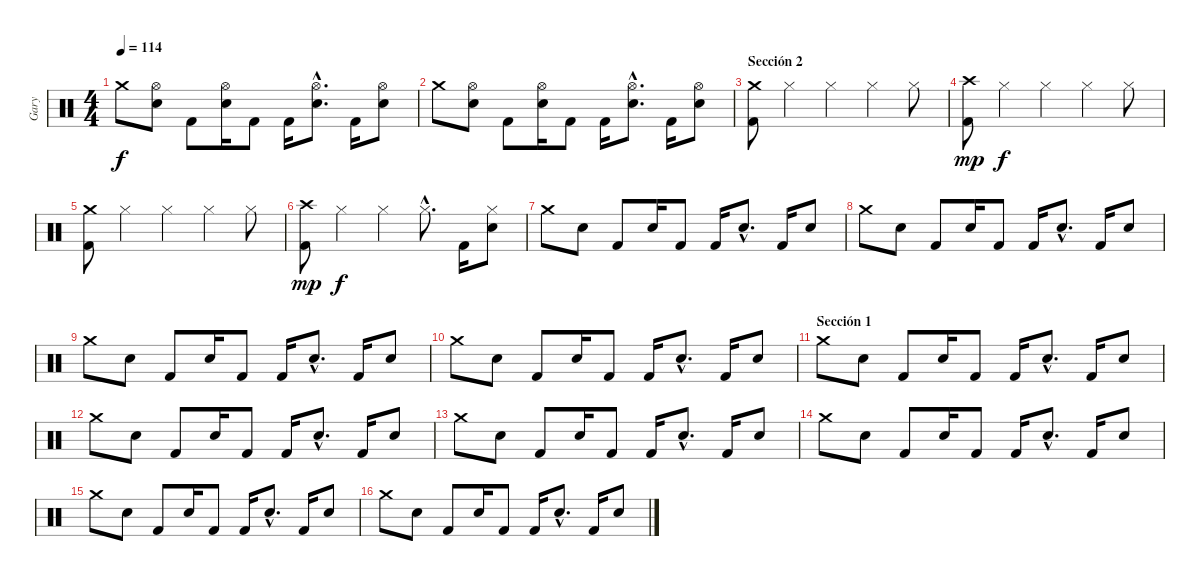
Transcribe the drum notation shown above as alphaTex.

\track ("Gary" "Gary") {instrument percussion}
\staff {score}
\articulation defaults
\ts (4 4)
\tempo 114
\clef neutral
\ks c "Crash medium (hit)".8{dy f}
("Hi-Hat (open)" "Snare (hit) 2").8 "Kick (hit) 2".8 ("Hi-Hat (open)" "Snare (hit) 2").16 "Kick (hit) 2".8 "Kick (hit) 2".16 ("Hi-Hat (open)"{hac} "Snare (hit) 2"{hac}).8{d} "Kick (hit) 2".16 ("Hi-Hat (open)" "Snare (hit) 2").8 |
"Crash medium (hit)".8 ("Hi-Hat (open)" "Snare (hit) 2").8 "Kick (hit) 2".8 ("Hi-Hat (open)" "Snare (hit) 2").16 "Kick (hit) 2".8 "Kick (hit) 2".16 ("Hi-Hat (open)"{hac} "Snare (hit) 2"{hac}).8{d} "Kick (hit) 2".16 ("Hi-Hat (open)" "Snare (hit) 2").8 |
\section ("" "Sección 2")
("Crash medium (hit)" "Kick (hit) 2").8 "Hi-Hat (closed)".4 "Hi-Hat (closed)".4 "Hi-Hat (closed)".4 "Hi-Hat (closed)".8 |
("Crash high (hit)" "Kick (hit) 2").8{dy mp} "Hi-Hat (closed)".4{dy f} "Hi-Hat (closed)".4 "Hi-Hat (closed)".4 "Hi-Hat (closed)".8 |
("Crash medium (hit)" "Kick (hit) 2").8 "Hi-Hat (closed)".4 "Hi-Hat (closed)".4 "Hi-Hat (closed)".4 "Hi-Hat (closed)".8 |
("Crash high (hit)" "Kick (hit) 2").8{dy mp} "Hi-Hat (closed)".4{dy f} "Hi-Hat (closed)".4 "Hi-Hat (closed)"{hac}.8{d} "Kick (hit) 2".16 ("Hi-Hat (closed)" "Snare (hit) 2").8 |
"Crash medium (hit)".8 "Snare (hit) 2".8 "Kick (hit) 2".8 "Snare (hit) 2".16 "Kick (hit) 2".8 "Kick (hit) 2".16 "Snare (hit) 2"{hac}.8{d} "Kick (hit) 2".16 "Snare (hit) 2".8 |
"Crash medium (hit)".8 "Snare (hit) 2".8 "Kick (hit) 2".8 "Snare (hit) 2".16 "Kick (hit) 2".8 "Kick (hit) 2".16 "Snare (hit) 2"{hac}.8{d} "Kick (hit) 2".16 "Snare (hit) 2".8 |
"Crash medium (hit)".8 "Snare (hit) 2".8 "Kick (hit) 2".8 "Snare (hit) 2".16 "Kick (hit) 2".8 "Kick (hit) 2".16 "Snare (hit) 2"{hac}.8{d} "Kick (hit) 2".16 "Snare (hit) 2".8 |
"Crash medium (hit)".8 "Snare (hit) 2".8 "Kick (hit) 2".8 "Snare (hit) 2".16 "Kick (hit) 2".8 "Kick (hit) 2".16 "Snare (hit) 2"{hac}.8{d} "Kick (hit) 2".16 "Snare (hit) 2".8 |
\section ("" "Sección 1")
"Crash medium (hit)".8 "Snare (hit) 2".8 "Kick (hit) 2".8 "Snare (hit) 2".16 "Kick (hit) 2".8 "Kick (hit) 2".16 "Snare (hit) 2"{hac}.8{d} "Kick (hit) 2".16 "Snare (hit) 2".8 |
"Crash medium (hit)".8 "Snare (hit) 2".8 "Kick (hit) 2".8 "Snare (hit) 2".16 "Kick (hit) 2".8 "Kick (hit) 2".16 "Snare (hit) 2"{hac}.8{d} "Kick (hit) 2".16 "Snare (hit) 2".8 |
"Crash medium (hit)".8 "Snare (hit) 2".8 "Kick (hit) 2".8 "Snare (hit) 2".16 "Kick (hit) 2".8 "Kick (hit) 2".16 "Snare (hit) 2"{hac}.8{d} "Kick (hit) 2".16 "Snare (hit) 2".8 |
"Crash medium (hit)".8 "Snare (hit) 2".8 "Kick (hit) 2".8 "Snare (hit) 2".16 "Kick (hit) 2".8 "Kick (hit) 2".16 "Snare (hit) 2"{hac}.8{d} "Kick (hit) 2".16 "Snare (hit) 2".8 |
"Crash medium (hit)".8 "Snare (hit) 2".8 "Kick (hit) 2".8 "Snare (hit) 2".16 "Kick (hit) 2".8 "Kick (hit) 2".16 "Snare (hit) 2"{hac}.8{d} "Kick (hit) 2".16 "Snare (hit) 2".8 |
"Crash medium (hit)".8 "Snare (hit) 2".8 "Kick (hit) 2".8 "Snare (hit) 2".16 "Kick (hit) 2".8 "Kick (hit) 2".16 "Snare (hit) 2"{hac}.8{d} "Kick (hit) 2".16 "Snare (hit) 2".8
